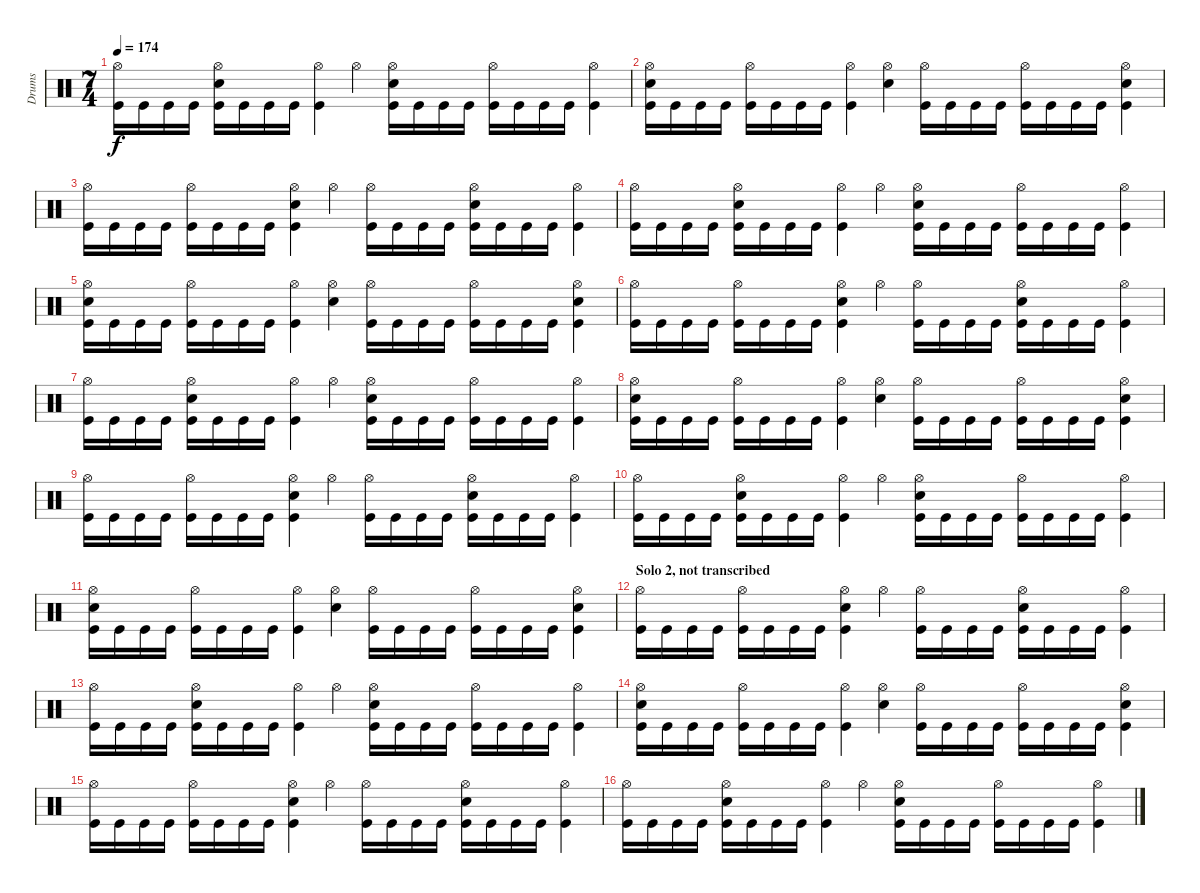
\track ("Drums" "Drums") {instrument percussion}
\staff {score}
\articulation defaults
\ts (7 4)
\tempo 174
\clef neutral
\ks c
("Hi-Hat (open)" "Kick (hit)").16{dy f} "Kick (hit)".16 "Kick (hit)".16 "Kick (hit)".16 ("Hi-Hat (open)" "Electric Snare (hit)" "Kick (hit)").16 "Kick (hit)".16 "Kick (hit)".16 "Kick (hit)".16 ("Hi-Hat (open)" "Kick (hit)").4 "Hi-Hat (open)".4 ("Hi-Hat (open)" "Electric Snare (hit)" "Kick (hit)").16 "Kick (hit)".16 "Kick (hit)".16 "Kick (hit)".16 ("Hi-Hat (open)" "Kick (hit)").16 "Kick (hit)".16 "Kick (hit)".16 "Kick (hit)".16 ("Hi-Hat (open)" "Kick (hit)").4 |
("Hi-Hat (open)" "Electric Snare (hit)" "Kick (hit)").16 "Kick (hit)".16 "Kick (hit)".16 "Kick (hit)".16 ("Hi-Hat (open)" "Kick (hit)").16 "Kick (hit)".16 "Kick (hit)".16 "Kick (hit)".16 ("Hi-Hat (open)" "Kick (hit)").4 ("Hi-Hat (open)" "Electric Snare (hit)").4 ("Hi-Hat (open)" "Kick (hit)").16 "Kick (hit)".16 "Kick (hit)".16 "Kick (hit)".16 ("Hi-Hat (open)" "Kick (hit)").16 "Kick (hit)".16 "Kick (hit)".16 "Kick (hit)".16 ("Hi-Hat (open)" "Electric Snare (hit)" "Kick (hit)").4 |
("Hi-Hat (open)" "Kick (hit)").16 "Kick (hit)".16 "Kick (hit)".16 "Kick (hit)".16 ("Hi-Hat (open)" "Kick (hit)").16 "Kick (hit)".16 "Kick (hit)".16 "Kick (hit)".16 ("Hi-Hat (open)" "Electric Snare (hit)" "Kick (hit)").4 "Hi-Hat (open)".4 ("Hi-Hat (open)" "Kick (hit)").16 "Kick (hit)".16 "Kick (hit)".16 "Kick (hit)".16 ("Hi-Hat (open)" "Electric Snare (hit)" "Kick (hit)").16 "Kick (hit)".16 "Kick (hit)".16 "Kick (hit)".16 ("Hi-Hat (open)" "Kick (hit)").4 |
("Hi-Hat (open)" "Kick (hit)").16 "Kick (hit)".16 "Kick (hit)".16 "Kick (hit)".16 ("Hi-Hat (open)" "Electric Snare (hit)" "Kick (hit)").16 "Kick (hit)".16 "Kick (hit)".16 "Kick (hit)".16 ("Hi-Hat (open)" "Kick (hit)").4 "Hi-Hat (open)".4 ("Hi-Hat (open)" "Electric Snare (hit)" "Kick (hit)").16 "Kick (hit)".16 "Kick (hit)".16 "Kick (hit)".16 ("Hi-Hat (open)" "Kick (hit)").16 "Kick (hit)".16 "Kick (hit)".16 "Kick (hit)".16 ("Hi-Hat (open)" "Kick (hit)").4 |
("Hi-Hat (open)" "Electric Snare (hit)" "Kick (hit)").16 "Kick (hit)".16 "Kick (hit)".16 "Kick (hit)".16 ("Hi-Hat (open)" "Kick (hit)").16 "Kick (hit)".16 "Kick (hit)".16 "Kick (hit)".16 ("Hi-Hat (open)" "Kick (hit)").4 ("Hi-Hat (open)" "Electric Snare (hit)").4 ("Hi-Hat (open)" "Kick (hit)").16 "Kick (hit)".16 "Kick (hit)".16 "Kick (hit)".16 ("Hi-Hat (open)" "Kick (hit)").16 "Kick (hit)".16 "Kick (hit)".16 "Kick (hit)".16 ("Hi-Hat (open)" "Electric Snare (hit)" "Kick (hit)").4 |
("Hi-Hat (open)" "Kick (hit)").16 "Kick (hit)".16 "Kick (hit)".16 "Kick (hit)".16 ("Hi-Hat (open)" "Kick (hit)").16 "Kick (hit)".16 "Kick (hit)".16 "Kick (hit)".16 ("Hi-Hat (open)" "Electric Snare (hit)" "Kick (hit)").4 "Hi-Hat (open)".4 ("Hi-Hat (open)" "Kick (hit)").16 "Kick (hit)".16 "Kick (hit)".16 "Kick (hit)".16 ("Hi-Hat (open)" "Electric Snare (hit)" "Kick (hit)").16 "Kick (hit)".16 "Kick (hit)".16 "Kick (hit)".16 ("Hi-Hat (open)" "Kick (hit)").4 |
("Hi-Hat (open)" "Kick (hit)").16 "Kick (hit)".16 "Kick (hit)".16 "Kick (hit)".16 ("Hi-Hat (open)" "Electric Snare (hit)" "Kick (hit)").16 "Kick (hit)".16 "Kick (hit)".16 "Kick (hit)".16 ("Hi-Hat (open)" "Kick (hit)").4 "Hi-Hat (open)".4 ("Hi-Hat (open)" "Electric Snare (hit)" "Kick (hit)").16 "Kick (hit)".16 "Kick (hit)".16 "Kick (hit)".16 ("Hi-Hat (open)" "Kick (hit)").16 "Kick (hit)".16 "Kick (hit)".16 "Kick (hit)".16 ("Hi-Hat (open)" "Kick (hit)").4 |
("Hi-Hat (open)" "Electric Snare (hit)" "Kick (hit)").16 "Kick (hit)".16 "Kick (hit)".16 "Kick (hit)".16 ("Hi-Hat (open)" "Kick (hit)").16 "Kick (hit)".16 "Kick (hit)".16 "Kick (hit)".16 ("Hi-Hat (open)" "Kick (hit)").4 ("Hi-Hat (open)" "Electric Snare (hit)").4 ("Hi-Hat (open)" "Kick (hit)").16 "Kick (hit)".16 "Kick (hit)".16 "Kick (hit)".16 ("Hi-Hat (open)" "Kick (hit)").16 "Kick (hit)".16 "Kick (hit)".16 "Kick (hit)".16 ("Hi-Hat (open)" "Electric Snare (hit)" "Kick (hit)").4 |
("Hi-Hat (open)" "Kick (hit)").16 "Kick (hit)".16 "Kick (hit)".16 "Kick (hit)".16 ("Hi-Hat (open)" "Kick (hit)").16 "Kick (hit)".16 "Kick (hit)".16 "Kick (hit)".16 ("Hi-Hat (open)" "Electric Snare (hit)" "Kick (hit)").4 "Hi-Hat (open)".4 ("Hi-Hat (open)" "Kick (hit)").16 "Kick (hit)".16 "Kick (hit)".16 "Kick (hit)".16 ("Hi-Hat (open)" "Electric Snare (hit)" "Kick (hit)").16 "Kick (hit)".16 "Kick (hit)".16 "Kick (hit)".16 ("Hi-Hat (open)" "Kick (hit)").4 |
("Hi-Hat (open)" "Kick (hit)").16 "Kick (hit)".16 "Kick (hit)".16 "Kick (hit)".16 ("Hi-Hat (open)" "Electric Snare (hit)" "Kick (hit)").16 "Kick (hit)".16 "Kick (hit)".16 "Kick (hit)".16 ("Hi-Hat (open)" "Kick (hit)").4 "Hi-Hat (open)".4 ("Hi-Hat (open)" "Electric Snare (hit)" "Kick (hit)").16 "Kick (hit)".16 "Kick (hit)".16 "Kick (hit)".16 ("Hi-Hat (open)" "Kick (hit)").16 "Kick (hit)".16 "Kick (hit)".16 "Kick (hit)".16 ("Hi-Hat (open)" "Kick (hit)").4 |
("Hi-Hat (open)" "Electric Snare (hit)" "Kick (hit)").16 "Kick (hit)".16 "Kick (hit)".16 "Kick (hit)".16 ("Hi-Hat (open)" "Kick (hit)").16 "Kick (hit)".16 "Kick (hit)".16 "Kick (hit)".16 ("Hi-Hat (open)" "Kick (hit)").4 ("Hi-Hat (open)" "Electric Snare (hit)").4 ("Hi-Hat (open)" "Kick (hit)").16 "Kick (hit)".16 "Kick (hit)".16 "Kick (hit)".16 ("Hi-Hat (open)" "Kick (hit)").16 "Kick (hit)".16 "Kick (hit)".16 "Kick (hit)".16 ("Hi-Hat (open)" "Electric Snare (hit)" "Kick (hit)").4 |
\section ("" "Solo 2, not transcribed")
("Hi-Hat (open)" "Kick (hit)").16 "Kick (hit)".16 "Kick (hit)".16 "Kick (hit)".16 ("Hi-Hat (open)" "Kick (hit)").16 "Kick (hit)".16 "Kick (hit)".16 "Kick (hit)".16 ("Hi-Hat (open)" "Electric Snare (hit)" "Kick (hit)").4 "Hi-Hat (open)".4 ("Hi-Hat (open)" "Kick (hit)").16 "Kick (hit)".16 "Kick (hit)".16 "Kick (hit)".16 ("Hi-Hat (open)" "Electric Snare (hit)" "Kick (hit)").16 "Kick (hit)".16 "Kick (hit)".16 "Kick (hit)".16 ("Hi-Hat (open)" "Kick (hit)").4 |
("Hi-Hat (open)" "Kick (hit)").16 "Kick (hit)".16 "Kick (hit)".16 "Kick (hit)".16 ("Hi-Hat (open)" "Electric Snare (hit)" "Kick (hit)").16 "Kick (hit)".16 "Kick (hit)".16 "Kick (hit)".16 ("Hi-Hat (open)" "Kick (hit)").4 "Hi-Hat (open)".4 ("Hi-Hat (open)" "Electric Snare (hit)" "Kick (hit)").16 "Kick (hit)".16 "Kick (hit)".16 "Kick (hit)".16 ("Hi-Hat (open)" "Kick (hit)").16 "Kick (hit)".16 "Kick (hit)".16 "Kick (hit)".16 ("Hi-Hat (open)" "Kick (hit)").4 |
("Hi-Hat (open)" "Electric Snare (hit)" "Kick (hit)").16 "Kick (hit)".16 "Kick (hit)".16 "Kick (hit)".16 ("Hi-Hat (open)" "Kick (hit)").16 "Kick (hit)".16 "Kick (hit)".16 "Kick (hit)".16 ("Hi-Hat (open)" "Kick (hit)").4 ("Hi-Hat (open)" "Electric Snare (hit)").4 ("Hi-Hat (open)" "Kick (hit)").16 "Kick (hit)".16 "Kick (hit)".16 "Kick (hit)".16 ("Hi-Hat (open)" "Kick (hit)").16 "Kick (hit)".16 "Kick (hit)".16 "Kick (hit)".16 ("Hi-Hat (open)" "Electric Snare (hit)" "Kick (hit)").4 |
("Hi-Hat (open)" "Kick (hit)").16 "Kick (hit)".16 "Kick (hit)".16 "Kick (hit)".16 ("Hi-Hat (open)" "Kick (hit)").16 "Kick (hit)".16 "Kick (hit)".16 "Kick (hit)".16 ("Hi-Hat (open)" "Electric Snare (hit)" "Kick (hit)").4 "Hi-Hat (open)".4 ("Hi-Hat (open)" "Kick (hit)").16 "Kick (hit)".16 "Kick (hit)".16 "Kick (hit)".16 ("Hi-Hat (open)" "Electric Snare (hit)" "Kick (hit)").16 "Kick (hit)".16 "Kick (hit)".16 "Kick (hit)".16 ("Hi-Hat (open)" "Kick (hit)").4 |
("Hi-Hat (open)" "Kick (hit)").16 "Kick (hit)".16 "Kick (hit)".16 "Kick (hit)".16 ("Hi-Hat (open)" "Electric Snare (hit)" "Kick (hit)").16 "Kick (hit)".16 "Kick (hit)".16 "Kick (hit)".16 ("Hi-Hat (open)" "Kick (hit)").4 "Hi-Hat (open)".4 ("Hi-Hat (open)" "Electric Snare (hit)" "Kick (hit)").16 "Kick (hit)".16 "Kick (hit)".16 "Kick (hit)".16 ("Hi-Hat (open)" "Kick (hit)").16 "Kick (hit)".16 "Kick (hit)".16 "Kick (hit)".16 ("Hi-Hat (open)" "Kick (hit)").4
